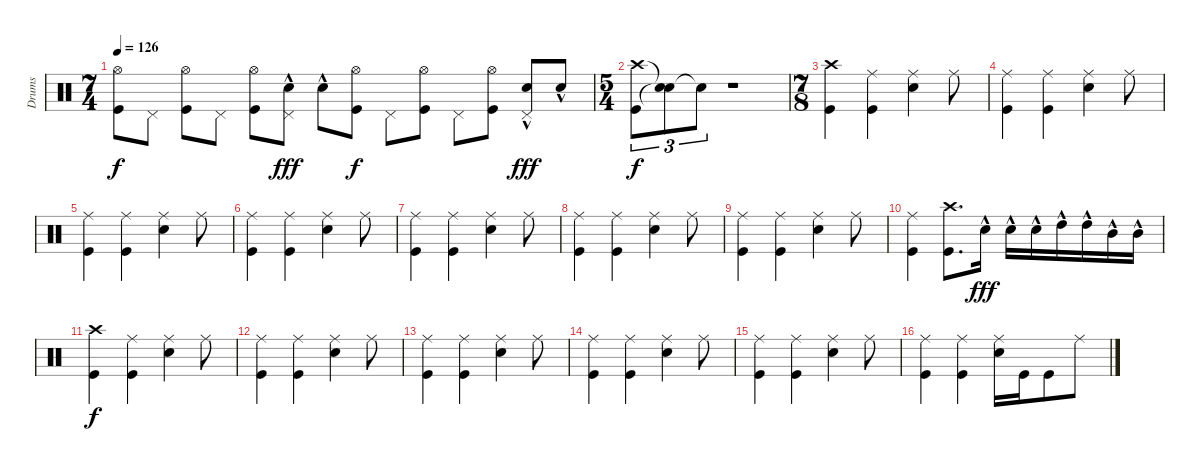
\track ("Drums" "Drums") {instrument percussion}
\staff {score}
\articulation defaults
\ts (7 4)
\tempo 126
\clef neutral
\ks c
("Hi-Hat (open)" "Kick (hit)").8{dy f} "Pedal Hi-Hat (hit)".8 ("Hi-Hat (open)" "Kick (hit)").8 "Pedal Hi-Hat (hit)".8 ("Hi-Hat (open)" "Kick (hit)").8 ("Pedal Hi-Hat (hit)" "Snare (hit) 2"{hac}).8{dy fff} "Snare (hit) 2"{hac}.8 ("Hi-Hat (open)" "Kick (hit)").8{dy f} "Pedal Hi-Hat (hit)".8 ("Hi-Hat (open)" "Kick (hit)").8 "Pedal Hi-Hat (hit)".8 ("Hi-Hat (open)" "Kick (hit)").8 ("Pedal Hi-Hat (hit)" "Snare (hit) 2"{hac}).8{dy fff} "Snare (hit) 2"{hac}.8 |
\ts (5 4)
("Crash high (hit)" "Kick (hit)").8{tu (3 2) dy f} ("Snare (hit)"{t} "Snare (hit)"{t}).8{tu (3 2)} "Snare (hit)"{t}.8{tu (3 2) volume 0} r.1 |
\ts (7 8)
("Crash high (hit)" "Kick (hit)").4{volume 13} ("Ride (middle)" "Kick (hit)").4 ("Ride (middle)" "Snare (hit) 2").4 "Ride (middle)".8 |
("Ride (middle)" "Kick (hit)").4 ("Ride (middle)" "Kick (hit)").4 ("Ride (middle)" "Snare (hit) 2").4 "Ride (middle)".8 |
("Ride (middle)" "Kick (hit)").4 ("Ride (middle)" "Kick (hit)").4 ("Ride (middle)" "Snare (hit) 2").4 "Ride (middle)".8 |
("Ride (middle)" "Kick (hit)").4 ("Ride (middle)" "Kick (hit)").4 ("Ride (middle)" "Snare (hit) 2").4 "Ride (middle)".8 |
("Ride (middle)" "Kick (hit)").4 ("Ride (middle)" "Kick (hit)").4 ("Ride (middle)" "Snare (hit) 2").4 "Ride (middle)".8 |
("Ride (middle)" "Kick (hit)").4 ("Ride (middle)" "Kick (hit)").4 ("Ride (middle)" "Snare (hit) 2").4 "Ride (middle)".8 |
("Ride (middle)" "Kick (hit)").4 ("Ride (middle)" "Kick (hit)").4 ("Ride (middle)" "Snare (hit) 2").4 "Ride (middle)".8 |
("Ride (middle)" "Kick (hit)").4 ("Crash high (hit)" "Kick (hit)").8{d} "Snare (hit) 2"{hac}.16{dy fff} "Snare (hit) 2"{hac}.16 "Snare (hit) 2"{hac}.16 "High Tom (hit)"{hac}.16 "High Tom (hit)"{hac}.16 "Mid Tom (hit)"{hac}.16 "Mid Tom (hit)"{hac}.16 |
("Crash high (hit)" "Kick (hit)").4{dy f volume 13} ("Ride (middle)" "Kick (hit)").4 ("Ride (middle)" "Snare (hit) 2").4 "Ride (middle)".8 |
("Ride (middle)" "Kick (hit)").4 ("Ride (middle)" "Kick (hit)").4 ("Ride (middle)" "Snare (hit) 2").4 "Ride (middle)".8 |
("Ride (middle)" "Kick (hit)").4 ("Ride (middle)" "Kick (hit)").4 ("Ride (middle)" "Snare (hit) 2").4 "Ride (middle)".8 |
("Ride (middle)" "Kick (hit)").4 ("Ride (middle)" "Kick (hit)").4 ("Ride (middle)" "Snare (hit) 2").4 "Ride (middle)".8 |
("Ride (middle)" "Kick (hit)").4 ("Ride (middle)" "Kick (hit)").4 ("Ride (middle)" "Snare (hit) 2").4 "Ride (middle)".8 |
("Ride (middle)" "Kick (hit)").4 ("Ride (middle)" "Kick (hit)").4 ("Ride (middle)" "Snare (hit) 2").16 "Kick (hit)".16 "Kick (hit)".8 "Ride (middle)".8
